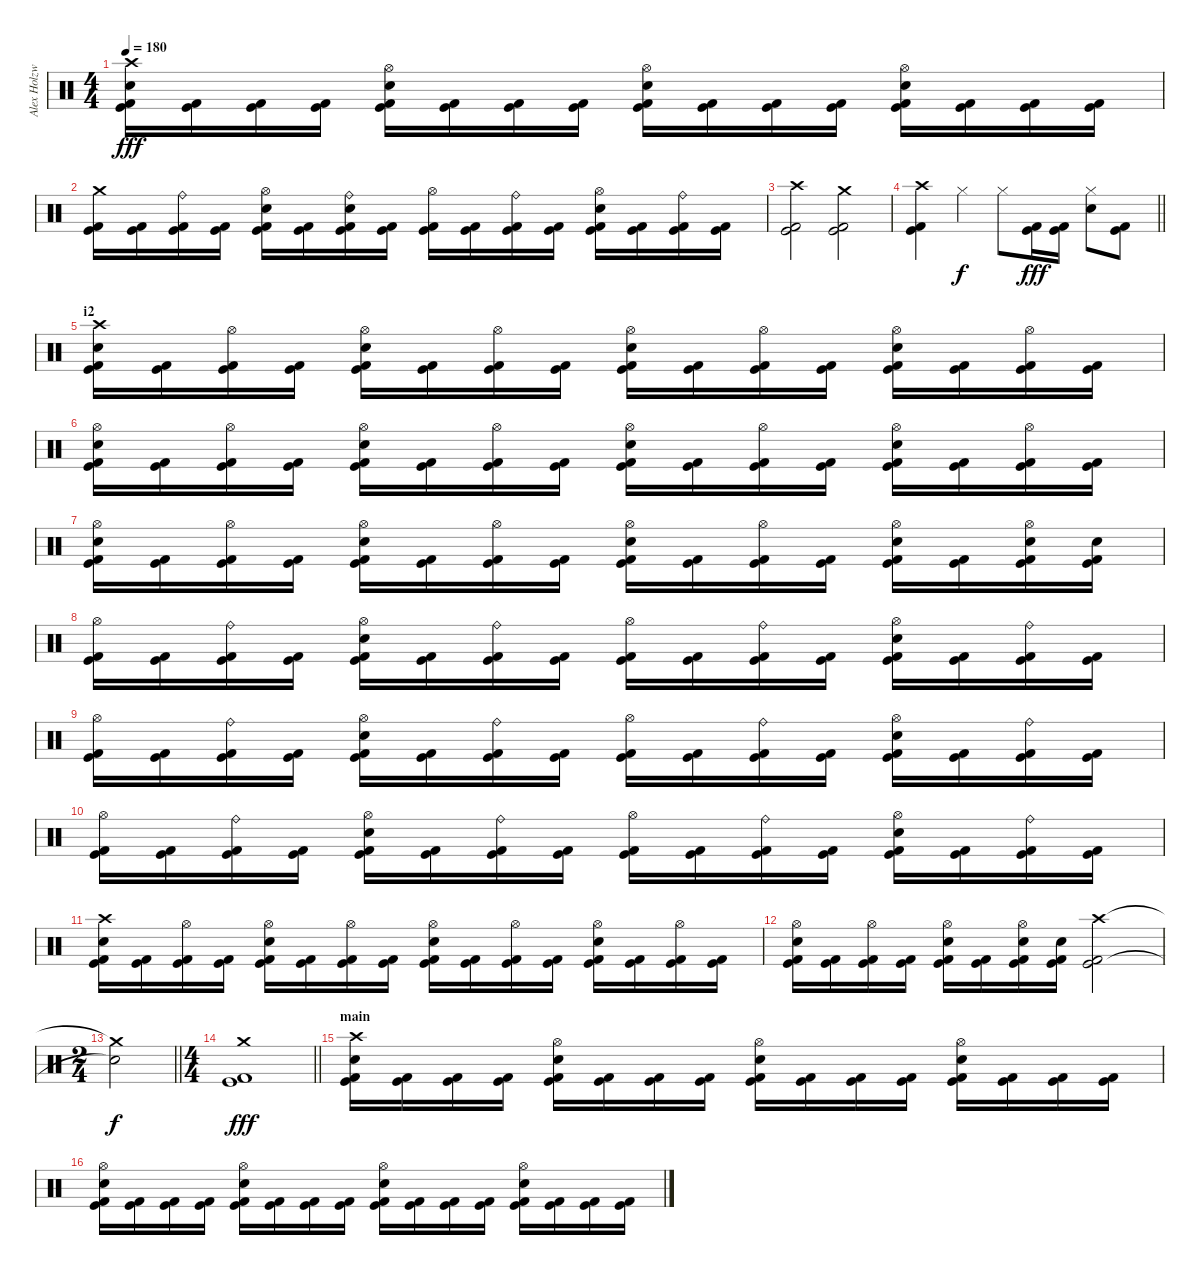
\track ("Alex Holzwarth" "Alex Holzw") {instrument percussion}
\staff {score}
\articulation defaults
\ts (4 4)
\tempo 180
\clef neutral
\ks c
("Crash high (hit)" "Snare (hit) 2" "Kick (hit)" "Kick (hit) 2").16{dy fff} ("Kick (hit)" "Kick (hit) 2").16 ("Kick (hit)" "Kick (hit) 2").16 ("Kick (hit)" "Kick (hit) 2").16 ("Hi-Hat (open)" "Snare (hit) 2" "Kick (hit)" "Kick (hit) 2").16 ("Kick (hit)" "Kick (hit) 2").16 ("Kick (hit)" "Kick (hit) 2").16 ("Kick (hit)" "Kick (hit) 2").16 ("Hi-Hat (open)" "Snare (hit) 2" "Kick (hit)" "Kick (hit) 2").16 ("Kick (hit)" "Kick (hit) 2").16 ("Kick (hit)" "Kick (hit) 2").16 ("Kick (hit)" "Kick (hit) 2").16 ("Hi-Hat (open)" "Snare (hit) 2" "Kick (hit)" "Kick (hit) 2").16 ("Kick (hit)" "Kick (hit) 2").16 ("Kick (hit)" "Kick (hit) 2").16 ("Kick (hit)" "Kick (hit) 2").16 |
("Crash medium (hit)" "Kick (hit)" "Kick (hit) 2").16 ("Kick (hit)" "Kick (hit) 2").16 ("Ride (bell)" "Kick (hit)" "Kick (hit) 2").16 ("Kick (hit)" "Kick (hit) 2").16 ("Hi-Hat (open)" "Snare (hit) 2" "Kick (hit)" "Kick (hit) 2").16 ("Kick (hit)" "Kick (hit) 2").16 ("Ride (bell)" "Snare (hit) 2" "Kick (hit)" "Kick (hit) 2").16 ("Kick (hit)" "Kick (hit) 2").16 ("Hi-Hat (open)" "Kick (hit)" "Kick (hit) 2").16 ("Kick (hit)" "Kick (hit) 2").16 ("Ride (bell)" "Kick (hit)" "Kick (hit) 2").16 ("Kick (hit)" "Kick (hit) 2").16 ("Hi-Hat (open)" "Snare (hit) 2" "Kick (hit)" "Kick (hit) 2").16 ("Kick (hit)" "Kick (hit) 2").16 ("Ride (bell)" "Kick (hit)" "Kick (hit) 2").16 ("Kick (hit)" "Kick (hit) 2").16 |
("Crash high (hit)" "Kick (hit)" "Kick (hit) 2").2 ("Crash medium (hit)" "Kick (hit)" "Kick (hit) 2").2 |
\barLineRight lightlight
("Crash high (hit)" "Kick (hit)" "Kick (hit) 2").4 "Hi-Hat (closed)".4{dy f} "Hi-Hat (closed)".8 ("Kick (hit)" "Kick (hit) 2").16{dy fff} ("Kick (hit)" "Kick (hit) 2").16 ("Hi-Hat (closed)" "Snare (hit) 2").8 ("Kick (hit)" "Kick (hit) 2").8 |
\section ("" "i2")
("Crash high (hit)" "Snare (hit) 2" "Kick (hit)" "Kick (hit) 2").16 ("Kick (hit)" "Kick (hit) 2").16 ("Hi-Hat (open)" "Kick (hit)" "Kick (hit) 2").16 ("Kick (hit)" "Kick (hit) 2").16 ("Hi-Hat (open)" "Snare (hit) 2" "Kick (hit)" "Kick (hit) 2").16 ("Kick (hit)" "Kick (hit) 2").16 ("Hi-Hat (open)" "Kick (hit)" "Kick (hit) 2").16 ("Kick (hit)" "Kick (hit) 2").16 ("Hi-Hat (open)" "Snare (hit) 2" "Kick (hit)" "Kick (hit) 2").16 ("Kick (hit)" "Kick (hit) 2").16 ("Hi-Hat (open)" "Kick (hit)" "Kick (hit) 2").16 ("Kick (hit)" "Kick (hit) 2").16 ("Hi-Hat (open)" "Snare (hit) 2" "Kick (hit)" "Kick (hit) 2").16 ("Kick (hit)" "Kick (hit) 2").16 ("Hi-Hat (open)" "Kick (hit)" "Kick (hit) 2").16 ("Kick (hit)" "Kick (hit) 2").16 |
("Hi-Hat (open)" "Snare (hit) 2" "Kick (hit)" "Kick (hit) 2").16 ("Kick (hit)" "Kick (hit) 2").16 ("Hi-Hat (open)" "Kick (hit)" "Kick (hit) 2").16 ("Kick (hit)" "Kick (hit) 2").16 ("Hi-Hat (open)" "Snare (hit) 2" "Kick (hit)" "Kick (hit) 2").16 ("Kick (hit)" "Kick (hit) 2").16 ("Hi-Hat (open)" "Kick (hit)" "Kick (hit) 2").16 ("Kick (hit)" "Kick (hit) 2").16 ("Hi-Hat (open)" "Snare (hit) 2" "Kick (hit)" "Kick (hit) 2").16 ("Kick (hit)" "Kick (hit) 2").16 ("Hi-Hat (open)" "Kick (hit)" "Kick (hit) 2").16 ("Kick (hit)" "Kick (hit) 2").16 ("Hi-Hat (open)" "Snare (hit) 2" "Kick (hit)" "Kick (hit) 2").16 ("Kick (hit)" "Kick (hit) 2").16 ("Hi-Hat (open)" "Kick (hit)" "Kick (hit) 2").16 ("Kick (hit)" "Kick (hit) 2").16 |
("Hi-Hat (open)" "Snare (hit) 2" "Kick (hit)" "Kick (hit) 2").16 ("Kick (hit)" "Kick (hit) 2").16 ("Hi-Hat (open)" "Kick (hit)" "Kick (hit) 2").16 ("Kick (hit)" "Kick (hit) 2").16 ("Hi-Hat (open)" "Snare (hit) 2" "Kick (hit)" "Kick (hit) 2").16 ("Kick (hit)" "Kick (hit) 2").16 ("Hi-Hat (open)" "Kick (hit)" "Kick (hit) 2").16 ("Kick (hit)" "Kick (hit) 2").16 ("Hi-Hat (open)" "Snare (hit) 2" "Kick (hit)" "Kick (hit) 2").16 ("Kick (hit)" "Kick (hit) 2").16 ("Hi-Hat (open)" "Kick (hit)" "Kick (hit) 2").16 ("Kick (hit)" "Kick (hit) 2").16 ("Hi-Hat (open)" "Snare (hit) 2" "Kick (hit)" "Kick (hit) 2").16 ("Kick (hit)" "Kick (hit) 2").16 ("Hi-Hat (open)" "Snare (hit) 2" "Kick (hit)" "Kick (hit) 2").16 ("Snare (hit) 2" "Kick (hit)" "Kick (hit) 2").16 |
("Hi-Hat (open)" "Kick (hit)" "Kick (hit) 2").16 ("Kick (hit)" "Kick (hit) 2").16 ("Ride (bell)" "Kick (hit)" "Kick (hit) 2").16 ("Kick (hit)" "Kick (hit) 2").16 ("Hi-Hat (open)" "Snare (hit) 2" "Kick (hit)" "Kick (hit) 2").16 ("Kick (hit)" "Kick (hit) 2").16 ("Ride (bell)" "Kick (hit)" "Kick (hit) 2").16 ("Kick (hit)" "Kick (hit) 2").16 ("Hi-Hat (open)" "Kick (hit)" "Kick (hit) 2").16 ("Kick (hit)" "Kick (hit) 2").16 ("Ride (bell)" "Kick (hit)" "Kick (hit) 2").16 ("Kick (hit)" "Kick (hit) 2").16 ("Hi-Hat (open)" "Snare (hit) 2" "Kick (hit)" "Kick (hit) 2").16 ("Kick (hit)" "Kick (hit) 2").16 ("Ride (bell)" "Kick (hit)" "Kick (hit) 2").16 ("Kick (hit)" "Kick (hit) 2").16 |
("Hi-Hat (open)" "Kick (hit)" "Kick (hit) 2").16 ("Kick (hit)" "Kick (hit) 2").16 ("Ride (bell)" "Kick (hit)" "Kick (hit) 2").16 ("Kick (hit)" "Kick (hit) 2").16 ("Hi-Hat (open)" "Snare (hit) 2" "Kick (hit)" "Kick (hit) 2").16 ("Kick (hit)" "Kick (hit) 2").16 ("Ride (bell)" "Kick (hit)" "Kick (hit) 2").16 ("Kick (hit)" "Kick (hit) 2").16 ("Hi-Hat (open)" "Kick (hit)" "Kick (hit) 2").16 ("Kick (hit)" "Kick (hit) 2").16 ("Ride (bell)" "Kick (hit)" "Kick (hit) 2").16 ("Kick (hit)" "Kick (hit) 2").16 ("Hi-Hat (open)" "Snare (hit) 2" "Kick (hit)" "Kick (hit) 2").16 ("Kick (hit)" "Kick (hit) 2").16 ("Ride (bell)" "Kick (hit)" "Kick (hit) 2").16 ("Kick (hit)" "Kick (hit) 2").16 |
("Hi-Hat (open)" "Kick (hit)" "Kick (hit) 2").16 ("Kick (hit)" "Kick (hit) 2").16 ("Ride (bell)" "Kick (hit)" "Kick (hit) 2").16 ("Kick (hit)" "Kick (hit) 2").16 ("Hi-Hat (open)" "Snare (hit) 2" "Kick (hit)" "Kick (hit) 2").16 ("Kick (hit)" "Kick (hit) 2").16 ("Ride (bell)" "Kick (hit)" "Kick (hit) 2").16 ("Kick (hit)" "Kick (hit) 2").16 ("Hi-Hat (open)" "Kick (hit)" "Kick (hit) 2").16 ("Kick (hit)" "Kick (hit) 2").16 ("Ride (bell)" "Kick (hit)" "Kick (hit) 2").16 ("Kick (hit)" "Kick (hit) 2").16 ("Hi-Hat (open)" "Snare (hit) 2" "Kick (hit)" "Kick (hit) 2").16 ("Kick (hit)" "Kick (hit) 2").16 ("Ride (bell)" "Kick (hit)" "Kick (hit) 2").16 ("Kick (hit)" "Kick (hit) 2").16 |
("Crash high (hit)" "Snare (hit) 2" "Kick (hit)" "Kick (hit) 2").16 ("Kick (hit)" "Kick (hit) 2").16 ("Hi-Hat (open)" "Kick (hit)" "Kick (hit) 2").16 ("Kick (hit)" "Kick (hit) 2").16 ("Hi-Hat (open)" "Snare (hit) 2" "Kick (hit)" "Kick (hit) 2").16 ("Kick (hit)" "Kick (hit) 2").16 ("Hi-Hat (open)" "Kick (hit)" "Kick (hit) 2").16 ("Kick (hit)" "Kick (hit) 2").16 ("Hi-Hat (open)" "Snare (hit) 2" "Kick (hit)" "Kick (hit) 2").16 ("Kick (hit)" "Kick (hit) 2").16 ("Hi-Hat (open)" "Kick (hit)" "Kick (hit) 2").16 ("Kick (hit)" "Kick (hit) 2").16 ("Hi-Hat (open)" "Snare (hit) 2" "Kick (hit)" "Kick (hit) 2").16 ("Kick (hit)" "Kick (hit) 2").16 ("Hi-Hat (open)" "Kick (hit)" "Kick (hit) 2").16 ("Kick (hit)" "Kick (hit) 2").16 |
("Hi-Hat (open)" "Snare (hit) 2" "Kick (hit)" "Kick (hit) 2").16 ("Kick (hit)" "Kick (hit) 2").16 ("Hi-Hat (open)" "Kick (hit)" "Kick (hit) 2").16 ("Kick (hit)" "Kick (hit) 2").16 ("Hi-Hat (open)" "Snare (hit) 2" "Kick (hit)" "Kick (hit) 2").16 ("Kick (hit)" "Kick (hit) 2").16 ("Hi-Hat (open)" "Snare (hit) 2" "Kick (hit)" "Kick (hit) 2").16 ("Snare (hit) 2" "Kick (hit)" "Kick (hit) 2").16 ("Crash high (hit)" "Kick (hit)" "Kick (hit) 2").2 |
\ts (2 4)
\barLineRight lightlight
("Crash medium (hit)"{t} "Snare (hit)"{t}).2{dy f} |
\ts (4 4)
\barLineRight lightlight
("Crash medium (hit)" "Kick (hit)" "Kick (hit) 2").1{dy fff} |
\section ("" "main")
("Crash high (hit)" "Snare (hit) 2" "Kick (hit)" "Kick (hit) 2").16 ("Kick (hit)" "Kick (hit) 2").16 ("Kick (hit)" "Kick (hit) 2").16 ("Kick (hit)" "Kick (hit) 2").16 ("Hi-Hat (open)" "Snare (hit) 2" "Kick (hit)" "Kick (hit) 2").16 ("Kick (hit)" "Kick (hit) 2").16 ("Kick (hit)" "Kick (hit) 2").16 ("Kick (hit)" "Kick (hit) 2").16 ("Hi-Hat (open)" "Snare (hit) 2" "Kick (hit)" "Kick (hit) 2").16 ("Kick (hit)" "Kick (hit) 2").16 ("Kick (hit)" "Kick (hit) 2").16 ("Kick (hit)" "Kick (hit) 2").16 ("Hi-Hat (open)" "Snare (hit) 2" "Kick (hit)" "Kick (hit) 2").16 ("Kick (hit)" "Kick (hit) 2").16 ("Kick (hit)" "Kick (hit) 2").16 ("Kick (hit)" "Kick (hit) 2").16 |
("Hi-Hat (open)" "Snare (hit) 2" "Kick (hit)" "Kick (hit) 2").16 ("Kick (hit)" "Kick (hit) 2").16 ("Kick (hit)" "Kick (hit) 2").16 ("Kick (hit)" "Kick (hit) 2").16 ("Hi-Hat (open)" "Snare (hit) 2" "Kick (hit)" "Kick (hit) 2").16 ("Kick (hit)" "Kick (hit) 2").16 ("Kick (hit)" "Kick (hit) 2").16 ("Kick (hit)" "Kick (hit) 2").16 ("Hi-Hat (open)" "Snare (hit) 2" "Kick (hit)" "Kick (hit) 2").16 ("Kick (hit)" "Kick (hit) 2").16 ("Kick (hit)" "Kick (hit) 2").16 ("Kick (hit)" "Kick (hit) 2").16 ("Hi-Hat (open)" "Snare (hit) 2" "Kick (hit)" "Kick (hit) 2").16 ("Kick (hit)" "Kick (hit) 2").16 ("Kick (hit)" "Kick (hit) 2").16 ("Kick (hit)" "Kick (hit) 2").16
